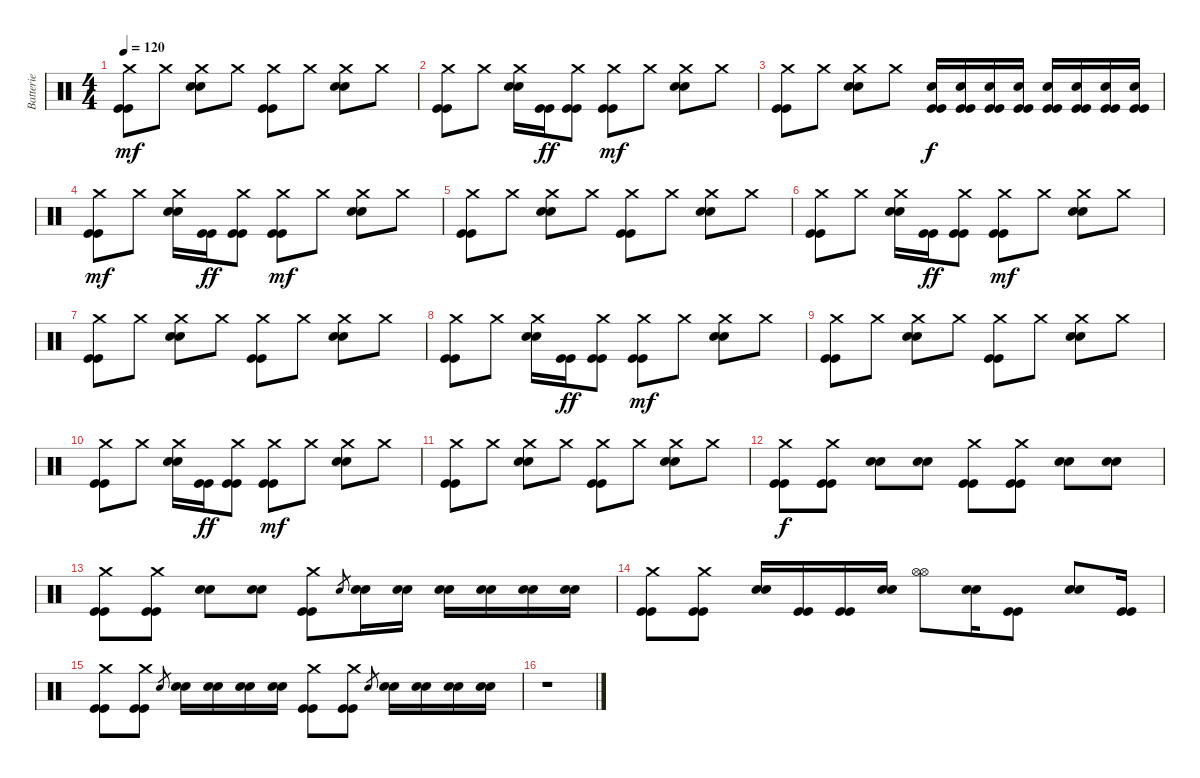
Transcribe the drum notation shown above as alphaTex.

\track ("Batterie" "Batterie") {instrument percussion}
\staff {score}
\articulation defaults
\ts (4 4)
\tempo 120
\clef neutral
\ks c
("Crash medium (hit)" "Kick (hit)" "Kick (hit)").8{dy mf} "Crash medium (hit)".8 ("Crash medium (hit)" "Electric Snare (hit)" "Electric Snare (hit)").8 "Crash medium (hit)".8 ("Crash medium (hit)" "Kick (hit)" "Kick (hit)").8 "Crash medium (hit)".8 ("Crash medium (hit)" "Electric Snare (hit)" "Electric Snare (hit)").8 "Crash medium (hit)".8 |
("Crash medium (hit)" "Kick (hit)" "Kick (hit)").8 "Crash medium (hit)".8 ("Crash medium (hit)" "Electric Snare (hit)" "Electric Snare (hit)").16 ("Kick (hit)" "Kick (hit)").16{dy ff} ("Crash medium (hit)" "Kick (hit)" "Kick (hit)").8 ("Crash medium (hit)" "Kick (hit)" "Kick (hit)").8{dy mf} "Crash medium (hit)".8 ("Crash medium (hit)" "Electric Snare (hit)" "Electric Snare (hit)").8 "Crash medium (hit)".8 |
("Crash medium (hit)" "Kick (hit)" "Kick (hit)").8 "Crash medium (hit)".8 ("Crash medium (hit)" "Electric Snare (hit)" "Electric Snare (hit)").8 "Crash medium (hit)".8 ("Electric Snare (hit)" "Kick (hit)" "Kick (hit)").16{dy f} ("Electric Snare (hit)" "Kick (hit)" "Kick (hit)").16 ("Electric Snare (hit)" "Kick (hit)" "Kick (hit)").16 ("Electric Snare (hit)" "Kick (hit)" "Kick (hit)").16 ("Electric Snare (hit)" "Kick (hit)" "Kick (hit)").16 ("Electric Snare (hit)" "Kick (hit)" "Kick (hit)").16 ("Electric Snare (hit)" "Kick (hit)" "Kick (hit)").16 ("Electric Snare (hit)" "Kick (hit)" "Kick (hit)").16 |
("Crash medium (hit)" "Kick (hit)" "Kick (hit)").8{dy mf} "Crash medium (hit)".8 ("Crash medium (hit)" "Electric Snare (hit)" "Electric Snare (hit)").16 ("Kick (hit)" "Kick (hit)").16{dy ff} ("Crash medium (hit)" "Kick (hit)" "Kick (hit)").8 ("Crash medium (hit)" "Kick (hit)" "Kick (hit)").8{dy mf} "Crash medium (hit)".8 ("Crash medium (hit)" "Electric Snare (hit)" "Electric Snare (hit)").8 "Crash medium (hit)".8 |
("Crash medium (hit)" "Kick (hit)" "Kick (hit)").8 "Crash medium (hit)".8 ("Crash medium (hit)" "Electric Snare (hit)" "Electric Snare (hit)").8 "Crash medium (hit)".8 ("Crash medium (hit)" "Kick (hit)" "Kick (hit)").8 "Crash medium (hit)".8 ("Crash medium (hit)" "Electric Snare (hit)" "Electric Snare (hit)").8 "Crash medium (hit)".8 |
("Crash medium (hit)" "Kick (hit)" "Kick (hit)").8 "Crash medium (hit)".8 ("Crash medium (hit)" "Electric Snare (hit)" "Electric Snare (hit)").16 ("Kick (hit)" "Kick (hit)").16{dy ff} ("Crash medium (hit)" "Kick (hit)" "Kick (hit)").8 ("Crash medium (hit)" "Kick (hit)" "Kick (hit)").8{dy mf} "Crash medium (hit)".8 ("Crash medium (hit)" "Electric Snare (hit)" "Electric Snare (hit)").8 "Crash medium (hit)".8 |
("Crash medium (hit)" "Kick (hit)" "Kick (hit)").8 "Crash medium (hit)".8 ("Crash medium (hit)" "Electric Snare (hit)" "Electric Snare (hit)").8 "Crash medium (hit)".8 ("Crash medium (hit)" "Kick (hit)" "Kick (hit)").8 "Crash medium (hit)".8 ("Crash medium (hit)" "Electric Snare (hit)" "Electric Snare (hit)").8 "Crash medium (hit)".8 |
("Crash medium (hit)" "Kick (hit)" "Kick (hit)").8 "Crash medium (hit)".8 ("Crash medium (hit)" "Electric Snare (hit)" "Electric Snare (hit)").16 ("Kick (hit)" "Kick (hit)").16{dy ff} ("Crash medium (hit)" "Kick (hit)" "Kick (hit)").8 ("Crash medium (hit)" "Kick (hit)" "Kick (hit)").8{dy mf} "Crash medium (hit)".8 ("Crash medium (hit)" "Electric Snare (hit)" "Electric Snare (hit)").8 "Crash medium (hit)".8 |
("Crash medium (hit)" "Kick (hit)" "Kick (hit)").8 "Crash medium (hit)".8 ("Crash medium (hit)" "Electric Snare (hit)" "Electric Snare (hit)").8 "Crash medium (hit)".8 ("Crash medium (hit)" "Kick (hit)" "Kick (hit)").8 "Crash medium (hit)".8 ("Crash medium (hit)" "Electric Snare (hit)" "Electric Snare (hit)").8 "Crash medium (hit)".8 |
("Crash medium (hit)" "Kick (hit)" "Kick (hit)").8 "Crash medium (hit)".8 ("Crash medium (hit)" "Electric Snare (hit)" "Electric Snare (hit)").16 ("Kick (hit)" "Kick (hit)").16{dy ff} ("Crash medium (hit)" "Kick (hit)" "Kick (hit)").8 ("Crash medium (hit)" "Kick (hit)" "Kick (hit)").8{dy mf} "Crash medium (hit)".8 ("Crash medium (hit)" "Electric Snare (hit)" "Electric Snare (hit)").8 "Crash medium (hit)".8 |
("Crash medium (hit)" "Kick (hit)" "Kick (hit)").8 "Crash medium (hit)".8 ("Crash medium (hit)" "Electric Snare (hit)" "Electric Snare (hit)").8 "Crash medium (hit)".8 ("Crash medium (hit)" "Kick (hit)" "Kick (hit)").8 "Crash medium (hit)".8 ("Crash medium (hit)" "Electric Snare (hit)" "Electric Snare (hit)").8 "Crash medium (hit)".8 |
("Crash medium (hit)" "Kick (hit)" "Kick (hit)").8{dy f} ("Crash medium (hit)" "Kick (hit)" "Kick (hit)").8 ("Electric Snare (hit)" "Electric Snare (hit)").8 ("Electric Snare (hit)" "Electric Snare (hit)").8 ("Crash medium (hit)" "Kick (hit)" "Kick (hit)").8 ("Crash medium (hit)" "Kick (hit)" "Kick (hit)").8 ("Electric Snare (hit)" "Electric Snare (hit)").8 ("Electric Snare (hit)" "Electric Snare (hit)").8 |
("Crash medium (hit)" "Kick (hit)" "Kick (hit)").8 ("Crash medium (hit)" "Kick (hit)" "Kick (hit)").8 ("Electric Snare (hit)" "Electric Snare (hit)").8 ("Electric Snare (hit)" "Electric Snare (hit)").8 ("Crash medium (hit)" "Kick (hit)" "Kick (hit)").8 "Electric Snare (hit)".8{gr} ("Electric Snare (hit)" "Electric Snare (hit)").16 ("Electric Snare (hit)" "Electric Snare (hit)").16 ("Electric Snare (hit)" "Electric Snare (hit)").16 ("Electric Snare (hit)" "Electric Snare (hit)").16 ("Electric Snare (hit)" "Electric Snare (hit)").16 ("Electric Snare (hit)" "Electric Snare (hit)").16 |
("Crash medium (hit)" "Kick (hit)" "Kick (hit)").8 ("Crash medium (hit)" "Kick (hit)" "Kick (hit)").8 ("Electric Snare (hit)" "Electric Snare (hit)").16 ("Kick (hit)" "Kick (hit)").16 ("Kick (hit)" "Kick (hit)").16 ("Electric Snare (hit)" "Electric Snare (hit)").16 ("Hi-Hat (open)" "Hi-Hat (open)").8 ("Electric Snare (hit)" "Electric Snare (hit)").16 ("Kick (hit)" "Kick (hit)").8 ("Electric Snare (hit)" "Electric Snare (hit)").8 ("Kick (hit)" "Kick (hit)").16 |
("Crash medium (hit)" "Kick (hit)" "Kick (hit)").8 ("Crash medium (hit)" "Kick (hit)" "Kick (hit)").8 "Electric Snare (hit)".8{gr} ("Electric Snare (hit)" "Electric Snare (hit)").16 ("Electric Snare (hit)" "Electric Snare (hit)").16 ("Electric Snare (hit)" "Electric Snare (hit)").16 ("Electric Snare (hit)" "Electric Snare (hit)").16 ("Crash medium (hit)" "Kick (hit)" "Kick (hit)").8 ("Crash medium (hit)" "Kick (hit)" "Kick (hit)").8 "Electric Snare (hit)".8{gr} ("Electric Snare (hit)" "Electric Snare (hit)").16 ("Electric Snare (hit)" "Electric Snare (hit)").16 ("Electric Snare (hit)" "Electric Snare (hit)").16 ("Electric Snare (hit)" "Electric Snare (hit)").16 |
r.1
